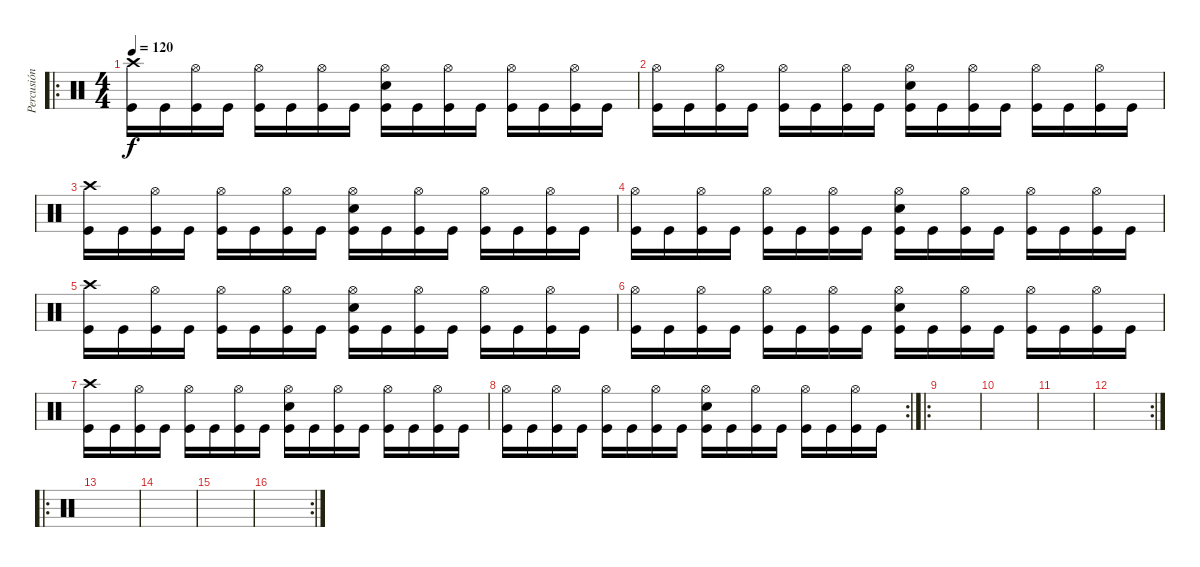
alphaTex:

\track ("Percusión" "Percusión") {instrument percussion}
\staff {score}
\articulation defaults
\ro
\ts (4 4)
\tempo 120
\clef neutral
\ks c
("Crash high (hit)" "Kick (hit)").16{dy f} "Kick (hit)".16 ("Kick (hit)" "Hi-Hat (open)").16 "Kick (hit)".16 ("Kick (hit)" "Hi-Hat (open)").16 "Kick (hit)".16 ("Kick (hit)" "Hi-Hat (open)").16 "Kick (hit)".16 ("Electric Snare (hit)" "Kick (hit)" "Hi-Hat (open)").16 "Kick (hit)".16 ("Kick (hit)" "Hi-Hat (open)").16 "Kick (hit)".16 ("Kick (hit)" "Hi-Hat (open)").16 "Kick (hit)".16 ("Kick (hit)" "Hi-Hat (open)").16 "Kick (hit)".16 |
("Hi-Hat (open)" "Kick (hit)").16 "Kick (hit)".16 ("Kick (hit)" "Hi-Hat (open)").16 "Kick (hit)".16 ("Kick (hit)" "Hi-Hat (open)").16 "Kick (hit)".16 ("Kick (hit)" "Hi-Hat (open)").16 "Kick (hit)".16 ("Electric Snare (hit)" "Kick (hit)" "Hi-Hat (open)").16 "Kick (hit)".16 ("Kick (hit)" "Hi-Hat (open)").16 "Kick (hit)".16 ("Kick (hit)" "Hi-Hat (open)").16 "Kick (hit)".16 ("Kick (hit)" "Hi-Hat (open)").16 "Kick (hit)".16 |
("Crash high (hit)" "Kick (hit)").16 "Kick (hit)".16 ("Kick (hit)" "Hi-Hat (open)").16 "Kick (hit)".16 ("Kick (hit)" "Hi-Hat (open)").16 "Kick (hit)".16 ("Kick (hit)" "Hi-Hat (open)").16 "Kick (hit)".16 ("Electric Snare (hit)" "Kick (hit)" "Hi-Hat (open)").16 "Kick (hit)".16 ("Kick (hit)" "Hi-Hat (open)").16 "Kick (hit)".16 ("Kick (hit)" "Hi-Hat (open)").16 "Kick (hit)".16 ("Kick (hit)" "Hi-Hat (open)").16 "Kick (hit)".16 |
("Hi-Hat (open)" "Kick (hit)").16 "Kick (hit)".16 ("Kick (hit)" "Hi-Hat (open)").16 "Kick (hit)".16 ("Kick (hit)" "Hi-Hat (open)").16 "Kick (hit)".16 ("Kick (hit)" "Hi-Hat (open)").16 "Kick (hit)".16 ("Electric Snare (hit)" "Kick (hit)" "Hi-Hat (open)").16 "Kick (hit)".16 ("Kick (hit)" "Hi-Hat (open)").16 "Kick (hit)".16 ("Kick (hit)" "Hi-Hat (open)").16 "Kick (hit)".16 ("Kick (hit)" "Hi-Hat (open)").16 "Kick (hit)".16 |
("Crash high (hit)" "Kick (hit)").16 "Kick (hit)".16 ("Kick (hit)" "Hi-Hat (open)").16 "Kick (hit)".16 ("Kick (hit)" "Hi-Hat (open)").16 "Kick (hit)".16 ("Kick (hit)" "Hi-Hat (open)").16 "Kick (hit)".16 ("Electric Snare (hit)" "Kick (hit)" "Hi-Hat (open)").16 "Kick (hit)".16 ("Kick (hit)" "Hi-Hat (open)").16 "Kick (hit)".16 ("Kick (hit)" "Hi-Hat (open)").16 "Kick (hit)".16 ("Kick (hit)" "Hi-Hat (open)").16 "Kick (hit)".16 |
("Hi-Hat (open)" "Kick (hit)").16 "Kick (hit)".16 ("Kick (hit)" "Hi-Hat (open)").16 "Kick (hit)".16 ("Kick (hit)" "Hi-Hat (open)").16 "Kick (hit)".16 ("Kick (hit)" "Hi-Hat (open)").16 "Kick (hit)".16 ("Electric Snare (hit)" "Kick (hit)" "Hi-Hat (open)").16 "Kick (hit)".16 ("Kick (hit)" "Hi-Hat (open)").16 "Kick (hit)".16 ("Kick (hit)" "Hi-Hat (open)").16 "Kick (hit)".16 ("Kick (hit)" "Hi-Hat (open)").16 "Kick (hit)".16 |
("Crash high (hit)" "Kick (hit)").16 "Kick (hit)".16 ("Kick (hit)" "Hi-Hat (open)").16 "Kick (hit)".16 ("Kick (hit)" "Hi-Hat (open)").16 "Kick (hit)".16 ("Kick (hit)" "Hi-Hat (open)").16 "Kick (hit)".16 ("Electric Snare (hit)" "Kick (hit)" "Hi-Hat (open)").16 "Kick (hit)".16 ("Kick (hit)" "Hi-Hat (open)").16 "Kick (hit)".16 ("Kick (hit)" "Hi-Hat (open)").16 "Kick (hit)".16 ("Kick (hit)" "Hi-Hat (open)").16 "Kick (hit)".16 |
\rc 2
("Hi-Hat (open)" "Kick (hit)").16 "Kick (hit)".16 ("Kick (hit)" "Hi-Hat (open)").16 "Kick (hit)".16 ("Kick (hit)" "Hi-Hat (open)").16 "Kick (hit)".16 ("Kick (hit)" "Hi-Hat (open)").16 "Kick (hit)".16 ("Electric Snare (hit)" "Kick (hit)" "Hi-Hat (open)").16 "Kick (hit)".16 ("Kick (hit)" "Hi-Hat (open)").16 "Kick (hit)".16 ("Kick (hit)" "Hi-Hat (open)").16 "Kick (hit)".16 ("Kick (hit)" "Hi-Hat (open)").16 "Kick (hit)".16 |
\ro
|
|
|
\rc 2
|
\ro
|
|
|
\rc 2
